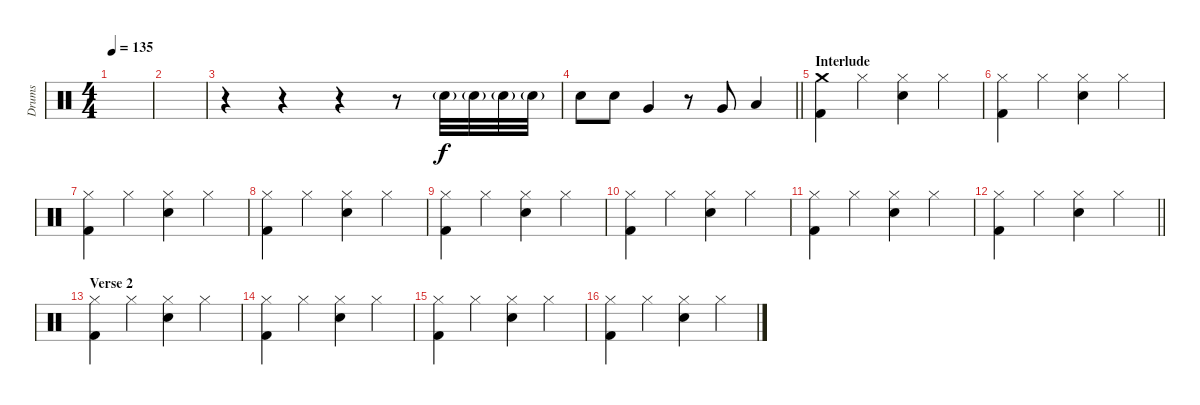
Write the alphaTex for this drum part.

\track ("Drums" "Drums") {instrument percussion}
\staff {score}
\articulation defaults
\ts (4 4)
\tempo 135
\clef neutral
\ks c
|
|
r.4 r.4 r.4 r.8 "Electric Snare (hit)"{g}.32 "Electric Snare (hit)"{g}.32 "Electric Snare (hit)"{g}.32 "Electric Snare (hit)"{g}.32 |
\barLineRight lightlight "Electric Snare (hit)".8{dy f} "Electric Snare (hit)".8 "Very Low Tom (hit)".4
r.8 "Very Low Tom (hit)".8 "Low Floor Tom (hit)".4 |
\section ("" "Interlude")
("Crash medium (hit)" "Kick (hit) 2").4 "Hi-Hat (closed)".4 ("Hi-Hat (closed)" "Electric Snare (hit)").4 "Hi-Hat (closed)".4 |
("Hi-Hat (closed)" "Kick (hit) 2").4 "Hi-Hat (closed)".4 ("Hi-Hat (closed)" "Electric Snare (hit)").4 "Hi-Hat (closed)".4 |
("Hi-Hat (closed)" "Kick (hit) 2").4 "Hi-Hat (closed)".4 ("Hi-Hat (closed)" "Electric Snare (hit)").4 "Hi-Hat (closed)".4 |
("Hi-Hat (closed)" "Kick (hit) 2").4 "Hi-Hat (closed)".4 ("Hi-Hat (closed)" "Electric Snare (hit)").4 "Hi-Hat (closed)".4 |
("Hi-Hat (closed)" "Kick (hit) 2").4 "Hi-Hat (closed)".4 ("Hi-Hat (closed)" "Electric Snare (hit)").4 "Hi-Hat (closed)".4 |
("Hi-Hat (closed)" "Kick (hit) 2").4 "Hi-Hat (closed)".4 ("Hi-Hat (closed)" "Electric Snare (hit)").4 "Hi-Hat (closed)".4 |
("Hi-Hat (closed)" "Kick (hit) 2").4 "Hi-Hat (closed)".4 ("Hi-Hat (closed)" "Electric Snare (hit)").4 "Hi-Hat (closed)".4 |
\barLineRight lightlight
("Hi-Hat (closed)" "Kick (hit) 2").4 "Hi-Hat (closed)".4 ("Hi-Hat (closed)" "Electric Snare (hit)").4 "Hi-Hat (closed)".4 |
\section ("" "Verse 2")
("Hi-Hat (closed)" "Kick (hit) 2").4 "Hi-Hat (closed)".4 ("Hi-Hat (closed)" "Electric Snare (hit)").4 "Hi-Hat (closed)".4 |
("Hi-Hat (closed)" "Kick (hit) 2").4 "Hi-Hat (closed)".4 ("Hi-Hat (closed)" "Electric Snare (hit)").4 "Hi-Hat (closed)".4 |
("Hi-Hat (closed)" "Kick (hit) 2").4 "Hi-Hat (closed)".4 ("Hi-Hat (closed)" "Electric Snare (hit)").4 "Hi-Hat (closed)".4 |
("Hi-Hat (closed)" "Kick (hit) 2").4 "Hi-Hat (closed)".4 ("Hi-Hat (closed)" "Electric Snare (hit)").4 "Hi-Hat (closed)".4
